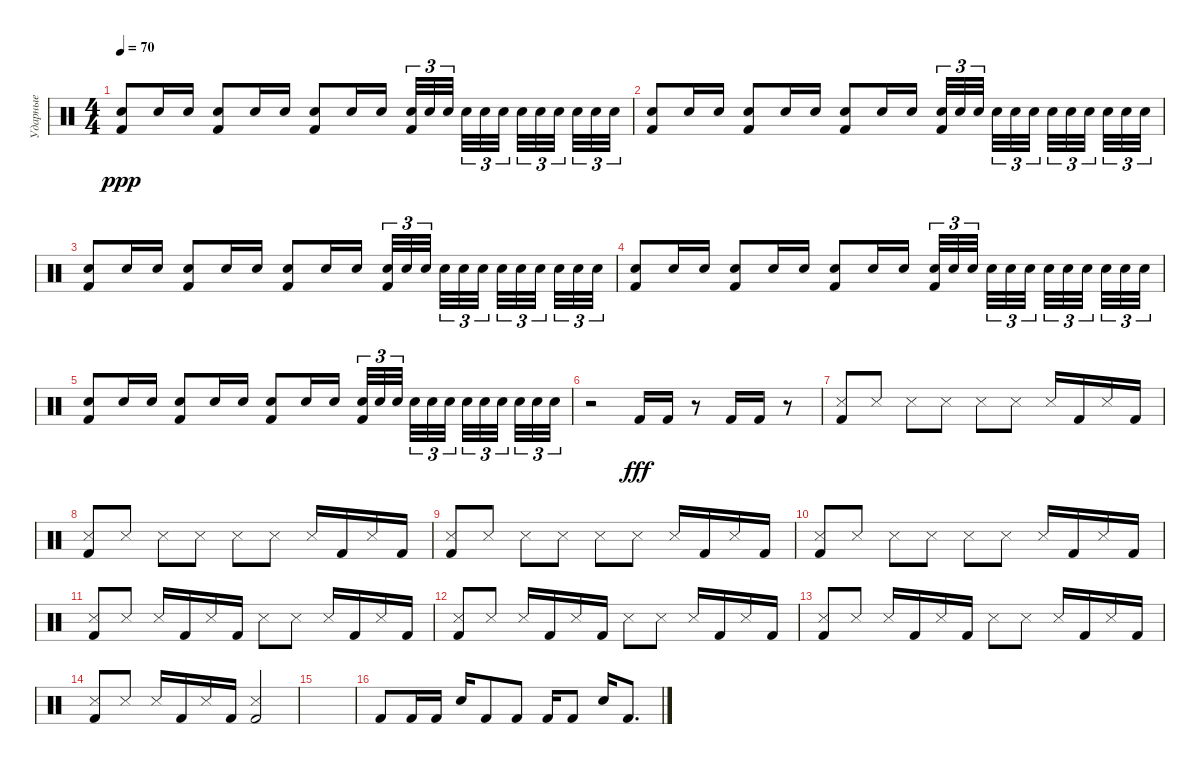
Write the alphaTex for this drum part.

\track ("Ударные" "Ударные") {instrument percussion}
\staff {score}
\articulation defaults
\ts (4 4)
\tempo 70
\clef neutral
\ks c
("Snare (hit) 2" "Kick (hit) 2").8{dy ppp} "Snare (hit) 2".16 "Snare (hit) 2".16 ("Snare (hit) 2" "Kick (hit) 2").8 "Snare (hit) 2".16 "Snare (hit) 2".16 ("Snare (hit) 2" "Kick (hit) 2").8 "Snare (hit) 2".16 "Snare (hit) 2".16 ("Snare (hit) 2" "Kick (hit) 2").32{tu (3 2)} "Snare (hit) 2".32{tu (3 2)} "Snare (hit) 2".32{tu (3 2) beam splitsecondary} "Snare (hit) 2".32{tu (3 2)} "Snare (hit) 2".32{tu (3 2)} "Snare (hit) 2".32{tu (3 2) beam splitsecondary} "Snare (hit) 2".32{tu (3 2)} "Snare (hit) 2".32{tu (3 2)} "Snare (hit) 2".32{tu (3 2) beam splitsecondary} "Snare (hit) 2".32{tu (3 2)} "Snare (hit) 2".32{tu (3 2)} "Snare (hit) 2".32{tu (3 2)} |
("Snare (hit) 2" "Kick (hit) 2").8 "Snare (hit) 2".16 "Snare (hit) 2".16 ("Snare (hit) 2" "Kick (hit) 2").8 "Snare (hit) 2".16 "Snare (hit) 2".16 ("Snare (hit) 2" "Kick (hit) 2").8 "Snare (hit) 2".16 "Snare (hit) 2".16 ("Snare (hit) 2" "Kick (hit) 2").32{tu (3 2)} "Snare (hit) 2".32{tu (3 2)} "Snare (hit) 2".32{tu (3 2) beam splitsecondary} "Snare (hit) 2".32{tu (3 2)} "Snare (hit) 2".32{tu (3 2)} "Snare (hit) 2".32{tu (3 2) beam splitsecondary} "Snare (hit) 2".32{tu (3 2)} "Snare (hit) 2".32{tu (3 2)} "Snare (hit) 2".32{tu (3 2) beam splitsecondary} "Snare (hit) 2".32{tu (3 2)} "Snare (hit) 2".32{tu (3 2)} "Snare (hit) 2".32{tu (3 2)} |
("Snare (hit) 2" "Kick (hit) 2").8 "Snare (hit) 2".16 "Snare (hit) 2".16 ("Snare (hit) 2" "Kick (hit) 2").8 "Snare (hit) 2".16 "Snare (hit) 2".16 ("Snare (hit) 2" "Kick (hit) 2").8 "Snare (hit) 2".16 "Snare (hit) 2".16 ("Snare (hit) 2" "Kick (hit) 2").32{tu (3 2)} "Snare (hit) 2".32{tu (3 2)} "Snare (hit) 2".32{tu (3 2) beam splitsecondary} "Snare (hit) 2".32{tu (3 2)} "Snare (hit) 2".32{tu (3 2)} "Snare (hit) 2".32{tu (3 2) beam splitsecondary} "Snare (hit) 2".32{tu (3 2)} "Snare (hit) 2".32{tu (3 2)} "Snare (hit) 2".32{tu (3 2) beam splitsecondary} "Snare (hit) 2".32{tu (3 2)} "Snare (hit) 2".32{tu (3 2)} "Snare (hit) 2".32{tu (3 2)} |
("Snare (hit) 2" "Kick (hit) 2").8 "Snare (hit) 2".16 "Snare (hit) 2".16 ("Snare (hit) 2" "Kick (hit) 2").8 "Snare (hit) 2".16 "Snare (hit) 2".16 ("Snare (hit) 2" "Kick (hit) 2").8 "Snare (hit) 2".16 "Snare (hit) 2".16 ("Snare (hit) 2" "Kick (hit) 2").32{tu (3 2)} "Snare (hit) 2".32{tu (3 2)} "Snare (hit) 2".32{tu (3 2) beam splitsecondary} "Snare (hit) 2".32{tu (3 2)} "Snare (hit) 2".32{tu (3 2)} "Snare (hit) 2".32{tu (3 2) beam splitsecondary} "Snare (hit) 2".32{tu (3 2)} "Snare (hit) 2".32{tu (3 2)} "Snare (hit) 2".32{tu (3 2) beam splitsecondary} "Snare (hit) 2".32{tu (3 2)} "Snare (hit) 2".32{tu (3 2)} "Snare (hit) 2".32{tu (3 2)} |
("Snare (hit) 2" "Kick (hit) 2").8 "Snare (hit) 2".16 "Snare (hit) 2".16 ("Snare (hit) 2" "Kick (hit) 2").8 "Snare (hit) 2".16 "Snare (hit) 2".16 ("Snare (hit) 2" "Kick (hit) 2").8 "Snare (hit) 2".16 "Snare (hit) 2".16 ("Snare (hit) 2" "Kick (hit) 2").32{tu (3 2)} "Snare (hit) 2".32{tu (3 2)} "Snare (hit) 2".32{tu (3 2) beam splitsecondary} "Snare (hit) 2".32{tu (3 2)} "Snare (hit) 2".32{tu (3 2)} "Snare (hit) 2".32{tu (3 2) beam splitsecondary} "Snare (hit) 2".32{tu (3 2)} "Snare (hit) 2".32{tu (3 2)} "Snare (hit) 2".32{tu (3 2) beam splitsecondary} "Snare (hit) 2".32{tu (3 2)} "Snare (hit) 2".32{tu (3 2)} "Snare (hit) 2".32{tu (3 2)} |
r.2 "Kick (hit) 2".16{dy fff} "Kick (hit) 2".16 r.8 "Kick (hit) 2".16 "Kick (hit) 2".16 r.8 |
("Snare (side stick) 3" "Kick (hit) 2").8 "Snare (side stick) 3".8 "Snare (side stick) 3".8 "Snare (side stick) 3".8 "Snare (side stick) 3".8 "Snare (side stick) 3".8 "Snare (side stick) 3".16 "Kick (hit) 2".16 "Snare (side stick) 3".16 "Kick (hit) 2".16 |
("Snare (side stick) 3" "Kick (hit) 2").8 "Snare (side stick) 3".8 "Snare (side stick) 3".8 "Snare (side stick) 3".8 "Snare (side stick) 3".8 "Snare (side stick) 3".8 "Snare (side stick) 3".16 "Kick (hit) 2".16 "Snare (side stick) 3".16 "Kick (hit) 2".16 |
("Snare (side stick) 3" "Kick (hit) 2").8 "Snare (side stick) 3".8 "Snare (side stick) 3".8 "Snare (side stick) 3".8 "Snare (side stick) 3".8 "Snare (side stick) 3".8 "Snare (side stick) 3".16 "Kick (hit) 2".16 "Snare (side stick) 3".16 "Kick (hit) 2".16 |
("Snare (side stick) 3" "Kick (hit) 2").8 "Snare (side stick) 3".8 "Snare (side stick) 3".8 "Snare (side stick) 3".8 "Snare (side stick) 3".8 "Snare (side stick) 3".8 "Snare (side stick) 3".16 "Kick (hit) 2".16 "Snare (side stick) 3".16 "Kick (hit) 2".16 |
("Snare (side stick) 3" "Kick (hit) 2").8 "Snare (side stick) 3".8 "Snare (side stick) 3".16 "Kick (hit) 2".16 "Snare (side stick) 3".16 "Kick (hit) 2".16 "Snare (side stick) 3".8 "Snare (side stick) 3".8 "Snare (side stick) 3".16 "Kick (hit) 2".16 "Snare (side stick) 3".16 "Kick (hit) 2".16 |
("Snare (side stick) 3" "Kick (hit) 2").8 "Snare (side stick) 3".8 "Snare (side stick) 3".16 "Kick (hit) 2".16 "Snare (side stick) 3".16 "Kick (hit) 2".16 "Snare (side stick) 3".8 "Snare (side stick) 3".8 "Snare (side stick) 3".16 "Kick (hit) 2".16 "Snare (side stick) 3".16 "Kick (hit) 2".16 |
("Snare (side stick) 3" "Kick (hit) 2").8 "Snare (side stick) 3".8 "Snare (side stick) 3".16 "Kick (hit) 2".16 "Snare (side stick) 3".16 "Kick (hit) 2".16 "Snare (side stick) 3".8 "Snare (side stick) 3".8 "Snare (side stick) 3".16 "Kick (hit) 2".16 "Snare (side stick) 3".16 "Kick (hit) 2".16 |
("Snare (side stick) 3" "Kick (hit) 2").8 "Snare (side stick) 3".8 "Snare (side stick) 3".16 "Kick (hit) 2".16 "Snare (side stick) 3".16 "Kick (hit) 2".16 ("Snare (side stick) 3" "Kick (hit) 2").2 |
|
"Kick (hit) 2".8 "Kick (hit) 2".16 "Kick (hit) 2".16 "Electric Snare (hit)".16 "Kick (hit) 2".8 "Kick (hit) 2".8 "Kick (hit) 2".16 "Kick (hit) 2".8 "Electric Snare (hit)".16 "Kick (hit) 2".8{d}
